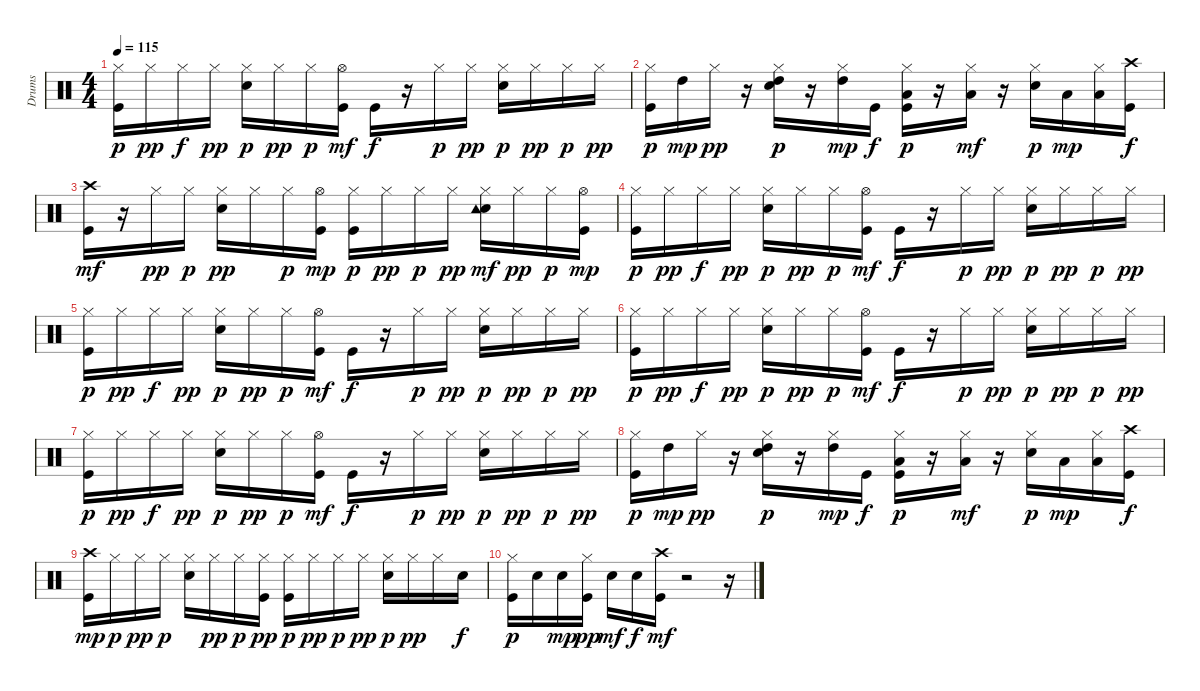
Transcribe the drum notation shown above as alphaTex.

\track ("Drums  " "Drums  ") {instrument percussion}
\staff {score}
\articulation defaults
\ts (4 4)
\tempo 115
\clef neutral
\ks c
("Kick (hit)" "Hi-Hat (closed)").16{dy p} "Hi-Hat (closed)".16{dy pp} "Hi-Hat (closed)".16{dy f} "Hi-Hat (closed)".16{dy pp} ("Snare (hit) 2" "Hi-Hat (closed)").16{dy p} "Hi-Hat (closed)".16{dy pp} "Hi-Hat (closed)".16{dy p} ("Kick (hit)" "Hi-Hat (open)").16{dy mf} "Kick (hit)".16{dy f} r.16 "Hi-Hat (closed)".16{dy p} "Hi-Hat (closed)".16{dy pp} ("Snare (hit) 2" "Hi-Hat (closed)").16{dy p} "Hi-Hat (closed)".16{dy pp} "Hi-Hat (closed)".16{dy p} "Hi-Hat (closed)".16{dy pp} |
("Kick (hit)" "Hi-Hat (closed)").16{dy p} "High Tom (hit)".16{dy mp} "Hi-Hat (closed)".16{dy pp} r.16 ("Snare (hit) 2" "Hi-Hat (closed)" "High Tom (hit)").16{dy p} r.16 ("Hi-Hat (closed)" "High Tom (hit)").16{dy mp} "Kick (hit)".16{dy f} ("Kick (hit)" "Hi-Hat (closed)" "Low Tom (hit)").16{dy p} r.16 ("Hi-Hat (closed)" "Low Tom (hit)").16{dy mf} r.16 ("Snare (hit) 2" "Hi-Hat (closed)").16{dy p} "Low Floor Tom (hit)".16{dy mp} ("Hi-Hat (closed)" "Low Floor Tom (hit)").16 ("Kick (hit)" "Crash high (hit)").16{dy f} |
("Kick (hit)" "Crash high (hit)").16{dy mf} r.16 "Hi-Hat (closed)".16{dy pp} "Hi-Hat (closed)".16{dy p} ("Snare (hit) 2" "Hi-Hat (closed)").16{dy pp} "Hi-Hat (closed)".16 "Hi-Hat (closed)".16{dy p} ("Kick (hit)" "Hi-Hat (open)").16{dy mp} ("Kick (hit)" "Hi-Hat (closed)").16{dy p} "Hi-Hat (closed)".16{dy pp} "Hi-Hat (closed)".16{dy p} "Hi-Hat (closed)".16{dy pp} ("Snare (hit) 2" "Hi-Hat (closed)" "Tambourine (hit)").16{dy mf} "Hi-Hat (closed)".16{dy pp} "Hi-Hat (closed)".16{dy p} ("Kick (hit)" "Hi-Hat (open)").16{dy mp} |
("Kick (hit)" "Hi-Hat (closed)").16{dy p} "Hi-Hat (closed)".16{dy pp} "Hi-Hat (closed)".16{dy f} "Hi-Hat (closed)".16{dy pp} ("Snare (hit) 2" "Hi-Hat (closed)").16{dy p} "Hi-Hat (closed)".16{dy pp} "Hi-Hat (closed)".16{dy p} ("Kick (hit)" "Hi-Hat (open)").16{dy mf} "Kick (hit)".16{dy f} r.16 "Hi-Hat (closed)".16{dy p} "Hi-Hat (closed)".16{dy pp} ("Snare (hit) 2" "Hi-Hat (closed)").16{dy p} "Hi-Hat (closed)".16{dy pp} "Hi-Hat (closed)".16{dy p} "Hi-Hat (closed)".16{dy pp} |
("Kick (hit)" "Hi-Hat (closed)").16{dy p} "Hi-Hat (closed)".16{dy pp} "Hi-Hat (closed)".16{dy f} "Hi-Hat (closed)".16{dy pp} ("Snare (hit) 2" "Hi-Hat (closed)").16{dy p} "Hi-Hat (closed)".16{dy pp} "Hi-Hat (closed)".16{dy p} ("Kick (hit)" "Hi-Hat (open)").16{dy mf} "Kick (hit)".16{dy f} r.16 "Hi-Hat (closed)".16{dy p} "Hi-Hat (closed)".16{dy pp} ("Snare (hit) 2" "Hi-Hat (closed)").16{dy p} "Hi-Hat (closed)".16{dy pp} "Hi-Hat (closed)".16{dy p} "Hi-Hat (closed)".16{dy pp} |
("Kick (hit)" "Hi-Hat (closed)").16{dy p} "Hi-Hat (closed)".16{dy pp} "Hi-Hat (closed)".16{dy f} "Hi-Hat (closed)".16{dy pp} ("Snare (hit) 2" "Hi-Hat (closed)").16{dy p} "Hi-Hat (closed)".16{dy pp} "Hi-Hat (closed)".16{dy p} ("Kick (hit)" "Hi-Hat (open)").16{dy mf} "Kick (hit)".16{dy f} r.16 "Hi-Hat (closed)".16{dy p} "Hi-Hat (closed)".16{dy pp} ("Snare (hit) 2" "Hi-Hat (closed)").16{dy p} "Hi-Hat (closed)".16{dy pp} "Hi-Hat (closed)".16{dy p} "Hi-Hat (closed)".16{dy pp} |
("Kick (hit)" "Hi-Hat (closed)").16{dy p} "Hi-Hat (closed)".16{dy pp} "Hi-Hat (closed)".16{dy f} "Hi-Hat (closed)".16{dy pp} ("Snare (hit) 2" "Hi-Hat (closed)").16{dy p} "Hi-Hat (closed)".16{dy pp} "Hi-Hat (closed)".16{dy p} ("Kick (hit)" "Hi-Hat (open)").16{dy mf} "Kick (hit)".16{dy f} r.16 "Hi-Hat (closed)".16{dy p} "Hi-Hat (closed)".16{dy pp} ("Snare (hit) 2" "Hi-Hat (closed)").16{dy p} "Hi-Hat (closed)".16{dy pp} "Hi-Hat (closed)".16{dy p} "Hi-Hat (closed)".16{dy pp} |
("Kick (hit)" "Hi-Hat (closed)").16{dy p} "High Tom (hit)".16{dy mp} "Hi-Hat (closed)".16{dy pp} r.16 ("Snare (hit) 2" "Hi-Hat (closed)" "High Tom (hit)").16{dy p} r.16 ("Hi-Hat (closed)" "High Tom (hit)").16{dy mp} "Kick (hit)".16{dy f} ("Kick (hit)" "Hi-Hat (closed)" "Low Tom (hit)").16{dy p} r.16 ("Hi-Hat (closed)" "Low Tom (hit)").16{dy mf} r.16 ("Snare (hit) 2" "Hi-Hat (closed)").16{dy p} "Low Floor Tom (hit)".16{dy mp} ("Hi-Hat (closed)" "Low Floor Tom (hit)").16 ("Kick (hit)" "Crash high (hit)").16{dy f} |
("Kick (hit)" "Crash high (hit)").16{dy mp} "Hi-Hat (closed)".16{dy p} "Hi-Hat (closed)".16{dy pp} "Hi-Hat (closed)".16{dy p} ("Snare (hit) 2" "Hi-Hat (closed)").16 "Hi-Hat (closed)".16{dy pp} "Hi-Hat (closed)".16{dy p} ("Kick (hit)" "Hi-Hat (closed)").16{dy pp} ("Kick (hit)" "Hi-Hat (closed)").16{dy p} "Hi-Hat (closed)".16{dy pp} "Hi-Hat (closed)".16{dy p} "Hi-Hat (closed)".16{dy pp} ("Snare (hit) 2" "Hi-Hat (closed)").16{dy p} "Hi-Hat (closed)".16{dy pp} "Hi-Hat (closed)".16 "Snare (hit) 2".16{dy f} |
("Kick (hit)" "Hi-Hat (closed)").16{dy p} "Snare (hit) 2".16 "Snare (hit) 2".16{dy mp} ("Kick (hit)" "Hi-Hat (closed)").16{dy pp} "Snare (hit) 2".16{dy mf} "Snare (hit) 2".16{dy f} ("Kick (hit)" "Crash high (hit)").16{dy mf} r.2 r.16
